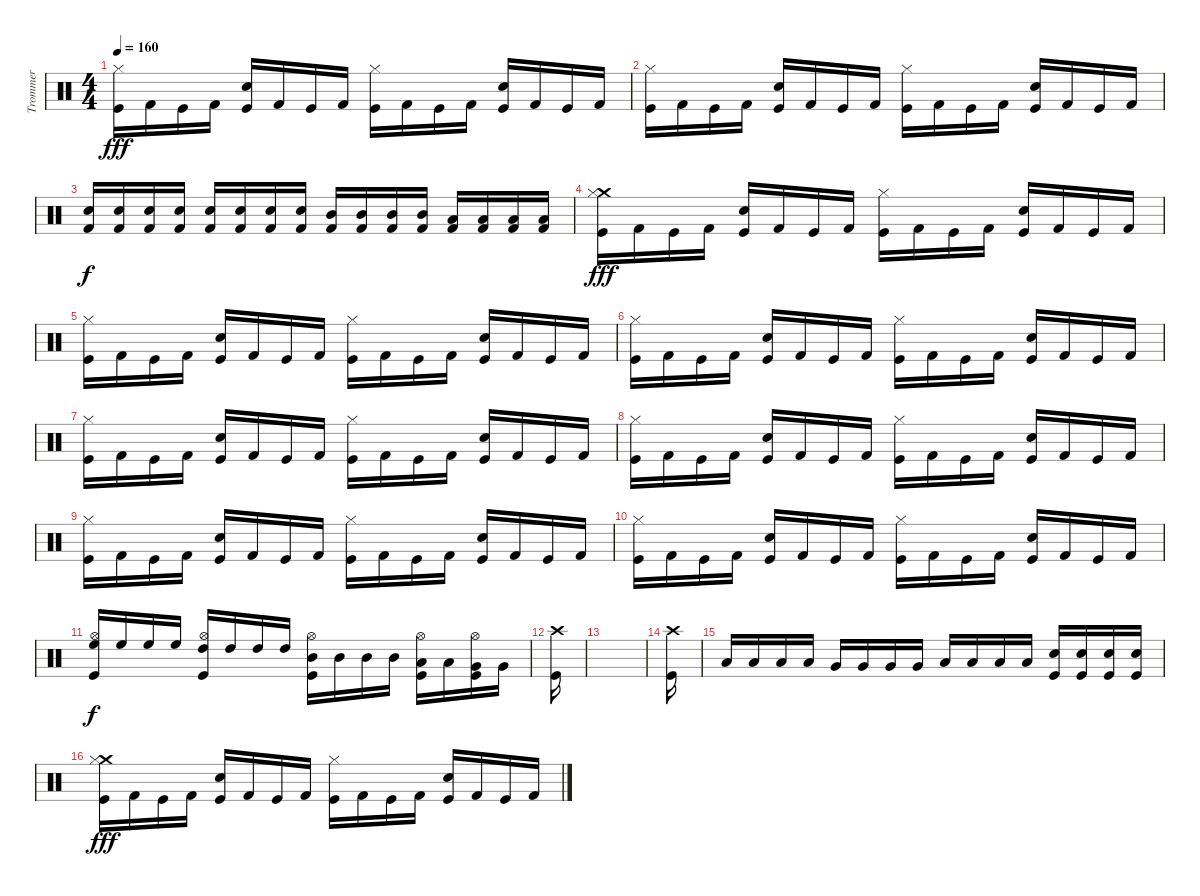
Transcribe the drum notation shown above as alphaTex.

\track ("Trommer" "Trommer") {instrument percussion}
\staff {score}
\articulation defaults
\ts (4 4)
\tempo 160
\clef neutral
\ks c
("Hi-Hat (closed)" "Kick (hit)").16{dy fff} "Kick (hit) 2".16 "Kick (hit)".16 "Kick (hit) 2".16 ("Snare (hit) 2" "Kick (hit)").16 "Kick (hit) 2".16 "Kick (hit)".16 "Kick (hit) 2".16 ("Hi-Hat (closed)" "Kick (hit)").16 "Kick (hit) 2".16 "Kick (hit)".16 "Kick (hit) 2".16 ("Snare (hit) 2" "Kick (hit)").16 "Kick (hit) 2".16 "Kick (hit)".16 "Kick (hit) 2".16 |
("Hi-Hat (closed)" "Kick (hit)").16 "Kick (hit) 2".16 "Kick (hit)".16 "Kick (hit) 2".16 ("Snare (hit) 2" "Kick (hit)").16 "Kick (hit) 2".16 "Kick (hit)".16 "Kick (hit) 2".16 ("Hi-Hat (closed)" "Kick (hit)").16 "Kick (hit) 2".16 "Kick (hit)".16 "Kick (hit) 2".16 ("Snare (hit) 2" "Kick (hit)").16 "Kick (hit) 2".16 "Kick (hit)".16 "Kick (hit) 2".16 |
("Snare (hit) 2" "Kick (hit) 2").16{dy f} ("Snare (hit) 2" "Kick (hit) 2").16 ("Snare (hit) 2" "Kick (hit) 2").16 ("Snare (hit) 2" "Kick (hit) 2").16 ("Snare (hit) 2" "Kick (hit) 2").16 ("Snare (hit) 2" "Kick (hit) 2").16 ("Snare (hit) 2" "Kick (hit) 2").16 ("Snare (hit) 2" "Kick (hit) 2").16 ("Mid Tom (hit)" "Kick (hit) 2").16 ("Mid Tom (hit)" "Kick (hit) 2").16 ("Mid Tom (hit)" "Kick (hit) 2").16 ("Mid Tom (hit)" "Kick (hit) 2").16 ("Low Tom (hit)" "Kick (hit) 2").16 ("Low Tom (hit)" "Kick (hit) 2").16 ("Low Tom (hit)" "Kick (hit) 2").16 ("Low Tom (hit)" "Kick (hit) 2").16 |
("Crash medium (hit)" "Hi-Hat (closed)" "Kick (hit)").16{dy fff} "Kick (hit) 2".16 "Kick (hit)".16 "Kick (hit) 2".16 ("Snare (hit) 2" "Kick (hit)").16 "Kick (hit) 2".16 "Kick (hit)".16 "Kick (hit) 2".16 ("Hi-Hat (closed)" "Kick (hit)").16 "Kick (hit) 2".16 "Kick (hit)".16 "Kick (hit) 2".16 ("Snare (hit) 2" "Kick (hit)").16 "Kick (hit) 2".16 "Kick (hit)".16 "Kick (hit) 2".16 |
("Hi-Hat (closed)" "Kick (hit)").16 "Kick (hit) 2".16 "Kick (hit)".16 "Kick (hit) 2".16 ("Snare (hit) 2" "Kick (hit)").16 "Kick (hit) 2".16 "Kick (hit)".16 "Kick (hit) 2".16 ("Hi-Hat (closed)" "Kick (hit)").16 "Kick (hit) 2".16 "Kick (hit)".16 "Kick (hit) 2".16 ("Snare (hit) 2" "Kick (hit)").16 "Kick (hit) 2".16 "Kick (hit)".16 "Kick (hit) 2".16 |
("Hi-Hat (closed)" "Kick (hit)").16 "Kick (hit) 2".16 "Kick (hit)".16 "Kick (hit) 2".16 ("Snare (hit) 2" "Kick (hit)").16 "Kick (hit) 2".16 "Kick (hit)".16 "Kick (hit) 2".16 ("Hi-Hat (closed)" "Kick (hit)").16 "Kick (hit) 2".16 "Kick (hit)".16 "Kick (hit) 2".16 ("Snare (hit) 2" "Kick (hit)").16 "Kick (hit) 2".16 "Kick (hit)".16 "Kick (hit) 2".16 |
("Hi-Hat (closed)" "Kick (hit)").16 "Kick (hit) 2".16 "Kick (hit)".16 "Kick (hit) 2".16 ("Snare (hit) 2" "Kick (hit)").16 "Kick (hit) 2".16 "Kick (hit)".16 "Kick (hit) 2".16 ("Hi-Hat (closed)" "Kick (hit)").16 "Kick (hit) 2".16 "Kick (hit)".16 "Kick (hit) 2".16 ("Snare (hit) 2" "Kick (hit)").16 "Kick (hit) 2".16 "Kick (hit)".16 "Kick (hit) 2".16 |
("Hi-Hat (closed)" "Kick (hit)").16 "Kick (hit) 2".16 "Kick (hit)".16 "Kick (hit) 2".16 ("Snare (hit) 2" "Kick (hit)").16 "Kick (hit) 2".16 "Kick (hit)".16 "Kick (hit) 2".16 ("Hi-Hat (closed)" "Kick (hit)").16 "Kick (hit) 2".16 "Kick (hit)".16 "Kick (hit) 2".16 ("Snare (hit) 2" "Kick (hit)").16 "Kick (hit) 2".16 "Kick (hit)".16 "Kick (hit) 2".16 |
("Hi-Hat (closed)" "Kick (hit)").16 "Kick (hit) 2".16 "Kick (hit)".16 "Kick (hit) 2".16 ("Snare (hit) 2" "Kick (hit)").16 "Kick (hit) 2".16 "Kick (hit)".16 "Kick (hit) 2".16 ("Hi-Hat (closed)" "Kick (hit)").16 "Kick (hit) 2".16 "Kick (hit)".16 "Kick (hit) 2".16 ("Snare (hit) 2" "Kick (hit)").16 "Kick (hit) 2".16 "Kick (hit)".16 "Kick (hit) 2".16 |
("Hi-Hat (closed)" "Kick (hit)").16 "Kick (hit) 2".16 "Kick (hit)".16 "Kick (hit) 2".16 ("Snare (hit) 2" "Kick (hit)").16 "Kick (hit) 2".16 "Kick (hit)".16 "Kick (hit) 2".16 ("Hi-Hat (closed)" "Kick (hit)").16 "Kick (hit) 2".16 "Kick (hit)".16 "Kick (hit) 2".16 ("Snare (hit) 2" "Kick (hit)").16 "Kick (hit) 2".16 "Kick (hit)".16 "Kick (hit) 2".16 |
("Hi-Hat (open)" "High Floor Tom (hit)" "Kick (hit)").16{dy f} "High Floor Tom (hit)".16 "High Floor Tom (hit)".16 "High Floor Tom (hit)".16 ("Hi-Hat (open)" "High Tom (hit)" "Kick (hit)").16 "High Tom (hit)".16 "High Tom (hit)".16 "High Tom (hit)".16 ("Hi-Hat (open)" "Mid Tom (hit)" "Kick (hit)").16 "Mid Tom (hit)".16 "Mid Tom (hit)".16 "Mid Tom (hit)".16 ("Hi-Hat (open)" "Low Tom (hit)" "Kick (hit)").16 "Low Tom (hit)".16 ("Hi-Hat (open)" "Very Low Tom (hit)" "Kick (hit)").16 "Very Low Tom (hit)".16 |
("Crash high (hit)" "Kick (hit)").16 |
|
("Crash high (hit)" "Kick (hit)").16 |
"Low Tom (hit)".16 "Low Tom (hit)".16 "Low Tom (hit)".16 "Low Tom (hit)".16 "Very Low Tom (hit)".16 "Very Low Tom (hit)".16 "Very Low Tom (hit)".16 "Very Low Tom (hit)".16 "Low Floor Tom (hit)".16 "Low Floor Tom (hit)".16 "Low Floor Tom (hit)".16 "Low Floor Tom (hit)".16 ("Snare (hit) 2" "Kick (hit)").16 ("Snare (hit) 2" "Kick (hit)").16 ("Snare (hit) 2" "Kick (hit)").16 ("Snare (hit) 2" "Kick (hit)").16 |
("Crash medium (hit)" "Hi-Hat (closed)" "Kick (hit)").16{dy fff} "Kick (hit) 2".16 "Kick (hit)".16 "Kick (hit) 2".16 ("Snare (hit) 2" "Kick (hit)").16 "Kick (hit) 2".16 "Kick (hit)".16 "Kick (hit) 2".16 ("Hi-Hat (closed)" "Kick (hit)").16 "Kick (hit) 2".16 "Kick (hit)".16 "Kick (hit) 2".16 ("Snare (hit) 2" "Kick (hit)").16 "Kick (hit) 2".16 "Kick (hit)".16 "Kick (hit) 2".16
